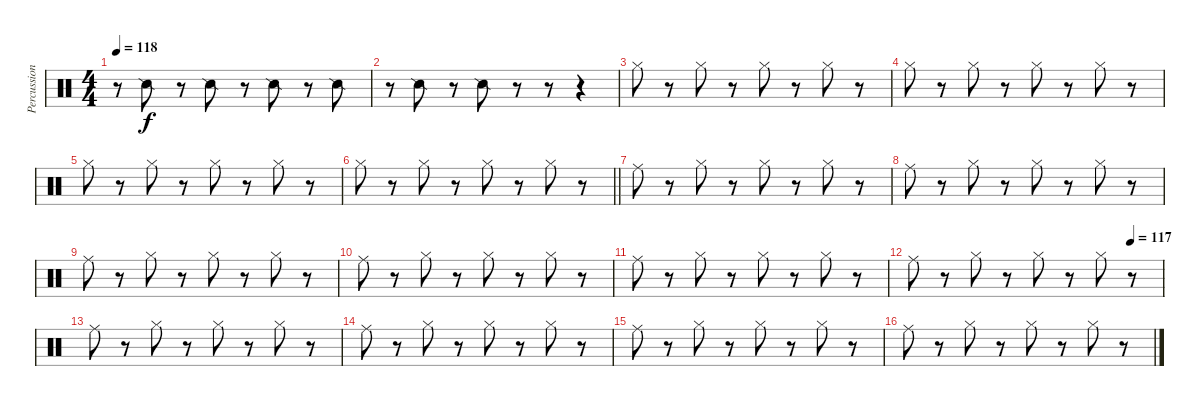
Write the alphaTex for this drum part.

\track ("Percussion" "Percussion") {instrument percussion}
\staff {score}
\articulation defaults
\ts (4 4)
\tempo 118
\clef neutral
\ks c
r.8{dy f} "Snare (side stick) 2".8 r.8 "Snare (side stick) 2".8 r.8 "Snare (side stick) 2".8 r.8 "Snare (side stick) 2".8 |
r.8 "Snare (side stick) 2".8 r.8 "Snare (side stick) 2".8 r.8 r.8 r.4 |
"Hi-Hat (closed)".8 r.8 "Hi-Hat (closed)".8 r.8 "Hi-Hat (closed)".8 r.8 "Hi-Hat (closed)".8 r.8 |
"Hi-Hat (closed)".8 r.8 "Hi-Hat (closed)".8 r.8 "Hi-Hat (closed)".8 r.8 "Hi-Hat (closed)".8 r.8 |
"Hi-Hat (closed)".8 r.8 "Hi-Hat (closed)".8 r.8 "Hi-Hat (closed)".8 r.8 "Hi-Hat (closed)".8 r.8 |
\barLineRight lightlight "Hi-Hat (closed)".8
r.8 "Hi-Hat (closed)".8 r.8 "Hi-Hat (closed)".8 r.8 "Hi-Hat (closed)".8 r.8 |
"Ride (middle)".8 r.8 "Hi-Hat (closed)".8 r.8 "Hi-Hat (closed)".8 r.8 "Hi-Hat (closed)".8 r.8 |
"Ride (middle)".8 r.8 "Hi-Hat (closed)".8 r.8 "Hi-Hat (closed)".8 r.8 "Hi-Hat (closed)".8 r.8 |
"Ride (middle)".8 r.8 "Hi-Hat (closed)".8 r.8 "Hi-Hat (closed)".8 r.8 "Hi-Hat (closed)".8 r.8 |
"Ride (middle)".8 r.8 "Hi-Hat (closed)".8 r.8 "Hi-Hat (closed)".8 r.8 "Hi-Hat (closed)".8 r.8 |
"Ride (middle)".8 r.8 "Hi-Hat (closed)".8 r.8 "Hi-Hat (closed)".8 r.8 "Hi-Hat (closed)".8 r.8 |
\tempo (117 0.875)
"Ride (middle)".8 r.8 "Hi-Hat (closed)".8 r.8 "Hi-Hat (closed)".8 r.8 "Hi-Hat (closed)".8 r.8 |
"Ride (middle)".8 r.8 "Hi-Hat (closed)".8 r.8 "Hi-Hat (closed)".8 r.8 "Hi-Hat (closed)".8 r.8 |
"Ride (middle)".8 r.8 "Hi-Hat (closed)".8 r.8 "Hi-Hat (closed)".8 r.8 "Hi-Hat (closed)".8 r.8 |
"Ride (middle)".8 r.8 "Hi-Hat (closed)".8 r.8 "Hi-Hat (closed)".8 r.8 "Hi-Hat (closed)".8 r.8 |
"Ride (middle)".8 r.8 "Hi-Hat (closed)".8 r.8 "Hi-Hat (closed)".8 r.8 "Hi-Hat (closed)".8 r.8
